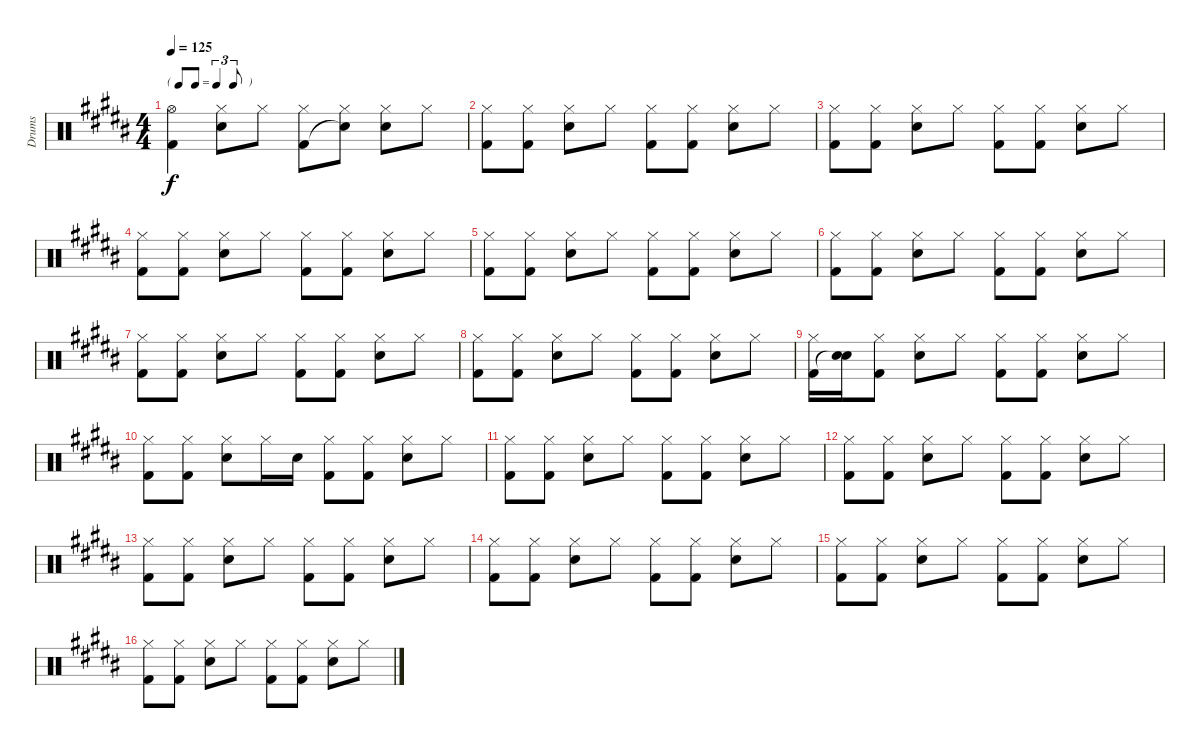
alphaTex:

\track ("Drums" "Drums") {instrument percussion}
\staff {score}
\articulation defaults
\ts (4 4)
\tf triplet8th
\tempo 125
\clef neutral
\ks b
("Hi-Hat (open)" "Kick (hit) 2").4{dy f} ("Hi-Hat (closed)" "Snare (hit) 2").8 "Hi-Hat (closed)".8 ("Hi-Hat (closed)" "Kick (hit) 2").8 ("Hi-Hat (closed)" "Snare (hit)"{t}).8 ("Hi-Hat (closed)" "Snare (hit) 2").8 "Hi-Hat (closed)".8 |
("Hi-Hat (closed)" "Kick (hit) 2").8 ("Hi-Hat (closed)" "Kick (hit) 2").8 ("Hi-Hat (closed)" "Snare (hit) 2").8 "Hi-Hat (closed)".8 ("Hi-Hat (closed)" "Kick (hit) 2").8 ("Hi-Hat (closed)" "Kick (hit) 2").8 ("Hi-Hat (closed)" "Snare (hit) 2").8 "Hi-Hat (closed)".8 |
("Hi-Hat (closed)" "Kick (hit) 2").8 ("Hi-Hat (closed)" "Kick (hit) 2").8 ("Hi-Hat (closed)" "Snare (hit) 2").8 "Hi-Hat (closed)".8 ("Hi-Hat (closed)" "Kick (hit) 2").8 ("Hi-Hat (closed)" "Kick (hit) 2").8 ("Hi-Hat (closed)" "Snare (hit) 2").8 "Hi-Hat (closed)".8 |
("Hi-Hat (closed)" "Kick (hit) 2").8 ("Hi-Hat (closed)" "Kick (hit) 2").8 ("Hi-Hat (closed)" "Snare (hit) 2").8 "Hi-Hat (closed)".8 ("Hi-Hat (closed)" "Kick (hit) 2").8 ("Hi-Hat (closed)" "Kick (hit) 2").8 ("Hi-Hat (closed)" "Snare (hit) 2").8 "Hi-Hat (closed)".8 |
("Hi-Hat (closed)" "Kick (hit) 2").8 ("Hi-Hat (closed)" "Kick (hit) 2").8 ("Hi-Hat (closed)" "Snare (hit) 2").8 "Hi-Hat (closed)".8 ("Hi-Hat (closed)" "Kick (hit) 2").8 ("Hi-Hat (closed)" "Kick (hit) 2").8 ("Hi-Hat (closed)" "Snare (hit) 2").8 "Hi-Hat (closed)".8 |
("Hi-Hat (closed)" "Kick (hit) 2").8 ("Hi-Hat (closed)" "Kick (hit) 2").8 ("Hi-Hat (closed)" "Snare (hit) 2").8 "Hi-Hat (closed)".8 ("Hi-Hat (closed)" "Kick (hit) 2").8 ("Hi-Hat (closed)" "Kick (hit) 2").8 ("Hi-Hat (closed)" "Snare (hit) 2").8 "Hi-Hat (closed)".8 |
("Hi-Hat (closed)" "Kick (hit) 2").8 ("Hi-Hat (closed)" "Kick (hit) 2").8 ("Hi-Hat (closed)" "Snare (hit) 2").8 "Hi-Hat (closed)".8 ("Hi-Hat (closed)" "Kick (hit) 2").8 ("Hi-Hat (closed)" "Kick (hit) 2").8 ("Hi-Hat (closed)" "Snare (hit) 2").8 "Hi-Hat (closed)".8 |
("Hi-Hat (closed)" "Kick (hit) 2").8 ("Hi-Hat (closed)" "Kick (hit) 2").8 ("Hi-Hat (closed)" "Snare (hit) 2").8 "Hi-Hat (closed)".8 ("Hi-Hat (closed)" "Kick (hit) 2").8 ("Hi-Hat (closed)" "Kick (hit) 2").8 ("Hi-Hat (closed)" "Snare (hit) 2").8 "Hi-Hat (closed)".8 |
("Hi-Hat (closed)" "Kick (hit) 2").16 ("Snare (hit) 2" "Snare (hit)"{t}).16 ("Hi-Hat (closed)" "Kick (hit) 2").8 ("Hi-Hat (closed)" "Snare (hit) 2").8 "Hi-Hat (closed)".8 ("Hi-Hat (closed)" "Kick (hit) 2").8 ("Hi-Hat (closed)" "Kick (hit) 2").8 ("Hi-Hat (closed)" "Snare (hit) 2").8 "Hi-Hat (closed)".8 |
("Hi-Hat (closed)" "Kick (hit) 2").8 ("Hi-Hat (closed)" "Kick (hit) 2").8 ("Hi-Hat (closed)" "Snare (hit) 2").8 "Hi-Hat (closed)".16 "Snare (hit) 2".16 ("Hi-Hat (closed)" "Kick (hit) 2").8 ("Hi-Hat (closed)" "Kick (hit) 2").8 ("Hi-Hat (closed)" "Snare (hit) 2").8 "Hi-Hat (closed)".8 |
("Hi-Hat (closed)" "Kick (hit) 2").8 ("Hi-Hat (closed)" "Kick (hit) 2").8 ("Hi-Hat (closed)" "Snare (hit) 2").8 "Hi-Hat (closed)".8 ("Hi-Hat (closed)" "Kick (hit) 2").8 ("Hi-Hat (closed)" "Kick (hit) 2").8 ("Hi-Hat (closed)" "Snare (hit) 2").8 "Hi-Hat (closed)".8 |
("Hi-Hat (closed)" "Kick (hit) 2").8 ("Hi-Hat (closed)" "Kick (hit) 2").8 ("Hi-Hat (closed)" "Snare (hit) 2").8 "Hi-Hat (closed)".8 ("Hi-Hat (closed)" "Kick (hit) 2").8 ("Hi-Hat (closed)" "Kick (hit) 2").8 ("Hi-Hat (closed)" "Snare (hit) 2").8 "Hi-Hat (closed)".8 |
("Hi-Hat (closed)" "Kick (hit) 2").8 ("Hi-Hat (closed)" "Kick (hit) 2").8 ("Hi-Hat (closed)" "Snare (hit) 2").8 "Hi-Hat (closed)".8 ("Hi-Hat (closed)" "Kick (hit) 2").8 ("Hi-Hat (closed)" "Kick (hit) 2").8 ("Hi-Hat (closed)" "Snare (hit) 2").8 "Hi-Hat (closed)".8 |
("Hi-Hat (closed)" "Kick (hit) 2").8 ("Hi-Hat (closed)" "Kick (hit) 2").8 ("Hi-Hat (closed)" "Snare (hit) 2").8 "Hi-Hat (closed)".8 ("Hi-Hat (closed)" "Kick (hit) 2").8 ("Hi-Hat (closed)" "Kick (hit) 2").8 ("Hi-Hat (closed)" "Snare (hit) 2").8 "Hi-Hat (closed)".8 |
("Hi-Hat (closed)" "Kick (hit) 2").8 ("Hi-Hat (closed)" "Kick (hit) 2").8 ("Hi-Hat (closed)" "Snare (hit) 2").8 "Hi-Hat (closed)".8 ("Hi-Hat (closed)" "Kick (hit) 2").8 ("Hi-Hat (closed)" "Kick (hit) 2").8 ("Hi-Hat (closed)" "Snare (hit) 2").8 "Hi-Hat (closed)".8 |
("Hi-Hat (closed)" "Kick (hit) 2").8 ("Hi-Hat (closed)" "Kick (hit) 2").8 ("Hi-Hat (closed)" "Snare (hit) 2").8 "Hi-Hat (closed)".8 ("Hi-Hat (closed)" "Kick (hit) 2").8 ("Hi-Hat (closed)" "Kick (hit) 2").8 ("Hi-Hat (closed)" "Snare (hit) 2").8 "Hi-Hat (closed)".8
